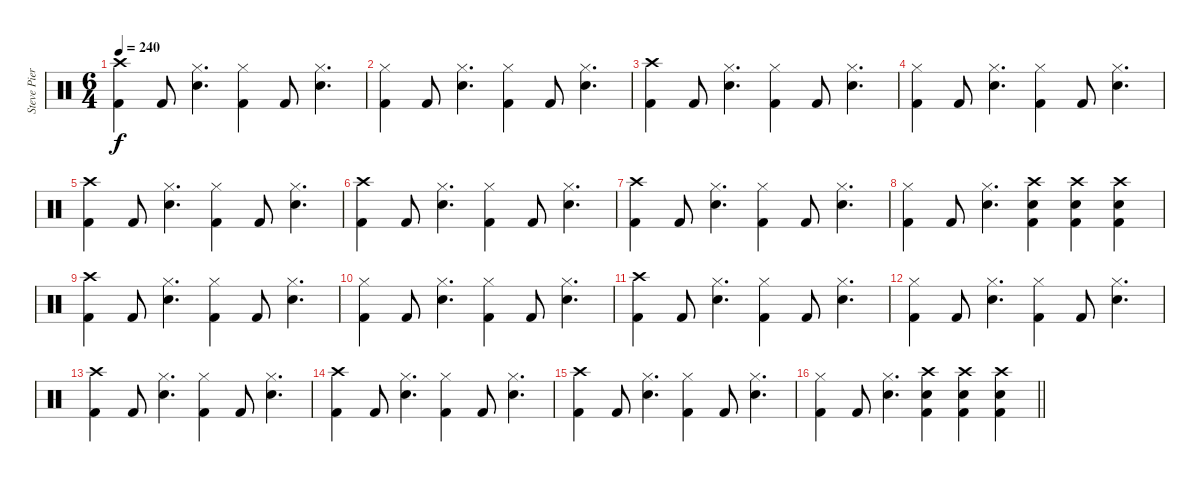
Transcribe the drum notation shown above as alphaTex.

\track ("Steve Pierce" "Steve Pier") {instrument percussion}
\staff {score}
\articulation defaults
\ts (6 4)
\tempo 240
\clef neutral
\ks c
("Crash high (hit)" "Kick (hit) 2").4{dy f} "Kick (hit) 2".8 ("Hi-Hat (closed)" "Snare (hit) 2").4{d} ("Hi-Hat (closed)" "Kick (hit) 2").4 "Kick (hit) 2".8 ("Hi-Hat (closed)" "Snare (hit) 2").4{d} |
("Hi-Hat (closed)" "Kick (hit) 2").4 "Kick (hit) 2".8 ("Hi-Hat (closed)" "Snare (hit) 2").4{d} ("Hi-Hat (closed)" "Kick (hit) 2").4 "Kick (hit) 2".8 ("Hi-Hat (closed)" "Snare (hit) 2").4{d} |
("Crash high (hit)" "Kick (hit) 2").4 "Kick (hit) 2".8 ("Hi-Hat (closed)" "Snare (hit) 2").4{d} ("Hi-Hat (closed)" "Kick (hit) 2").4 "Kick (hit) 2".8 ("Hi-Hat (closed)" "Snare (hit) 2").4{d} |
("Hi-Hat (closed)" "Kick (hit) 2").4 "Kick (hit) 2".8 ("Hi-Hat (closed)" "Snare (hit) 2").4{d} ("Hi-Hat (closed)" "Kick (hit) 2").4 "Kick (hit) 2".8 ("Hi-Hat (closed)" "Snare (hit) 2").4{d} |
("Crash high (hit)" "Kick (hit) 2").4 "Kick (hit) 2".8 ("Hi-Hat (closed)" "Snare (hit) 2").4{d} ("Hi-Hat (closed)" "Kick (hit) 2").4 "Kick (hit) 2".8 ("Hi-Hat (closed)" "Snare (hit) 2").4{d} |
("Crash high (hit)" "Kick (hit) 2").4 "Kick (hit) 2".8 ("Hi-Hat (closed)" "Snare (hit) 2").4{d} ("Hi-Hat (closed)" "Kick (hit) 2").4 "Kick (hit) 2".8 ("Hi-Hat (closed)" "Snare (hit) 2").4{d} |
("Crash high (hit)" "Kick (hit) 2").4 "Kick (hit) 2".8 ("Hi-Hat (closed)" "Snare (hit) 2").4{d} ("Hi-Hat (closed)" "Kick (hit) 2").4 "Kick (hit) 2".8 ("Hi-Hat (closed)" "Snare (hit) 2").4{d} |
("Hi-Hat (closed)" "Kick (hit) 2").4 "Kick (hit) 2".8 ("Hi-Hat (closed)" "Snare (hit) 2").4{d} ("Crash high (hit)" "Snare (hit) 2" "Kick (hit) 2").4 ("Crash high (hit)" "Snare (hit) 2" "Kick (hit) 2").4 ("Crash high (hit)" "Snare (hit) 2" "Kick (hit) 2").4 |
("Crash high (hit)" "Kick (hit) 2").4 "Kick (hit) 2".8 ("Hi-Hat (closed)" "Snare (hit) 2").4{d} ("Hi-Hat (closed)" "Kick (hit) 2").4 "Kick (hit) 2".8 ("Hi-Hat (closed)" "Snare (hit) 2").4{d} |
("Hi-Hat (closed)" "Kick (hit) 2").4 "Kick (hit) 2".8 ("Hi-Hat (closed)" "Snare (hit) 2").4{d} ("Hi-Hat (closed)" "Kick (hit) 2").4 "Kick (hit) 2".8 ("Hi-Hat (closed)" "Snare (hit) 2").4{d} |
("Crash high (hit)" "Kick (hit) 2").4 "Kick (hit) 2".8 ("Hi-Hat (closed)" "Snare (hit) 2").4{d} ("Hi-Hat (closed)" "Kick (hit) 2").4 "Kick (hit) 2".8 ("Hi-Hat (closed)" "Snare (hit) 2").4{d} |
("Hi-Hat (closed)" "Kick (hit) 2").4 "Kick (hit) 2".8 ("Hi-Hat (closed)" "Snare (hit) 2").4{d} ("Hi-Hat (closed)" "Kick (hit) 2").4 "Kick (hit) 2".8 ("Hi-Hat (closed)" "Snare (hit) 2").4{d} |
("Crash high (hit)" "Kick (hit) 2").4 "Kick (hit) 2".8 ("Hi-Hat (closed)" "Snare (hit) 2").4{d} ("Hi-Hat (closed)" "Kick (hit) 2").4 "Kick (hit) 2".8 ("Hi-Hat (closed)" "Snare (hit) 2").4{d} |
("Crash high (hit)" "Kick (hit) 2").4 "Kick (hit) 2".8 ("Hi-Hat (closed)" "Snare (hit) 2").4{d} ("Hi-Hat (closed)" "Kick (hit) 2").4 "Kick (hit) 2".8 ("Hi-Hat (closed)" "Snare (hit) 2").4{d} |
("Crash high (hit)" "Kick (hit) 2").4 "Kick (hit) 2".8 ("Hi-Hat (closed)" "Snare (hit) 2").4{d} ("Hi-Hat (closed)" "Kick (hit) 2").4 "Kick (hit) 2".8 ("Hi-Hat (closed)" "Snare (hit) 2").4{d} |
\barLineRight lightlight
("Hi-Hat (closed)" "Kick (hit) 2").4 "Kick (hit) 2".8 ("Hi-Hat (closed)" "Snare (hit) 2").4{d} ("Crash high (hit)" "Snare (hit) 2" "Kick (hit) 2").4 ("Crash high (hit)" "Snare (hit) 2" "Kick (hit) 2").4 ("Crash high (hit)" "Snare (hit) 2" "Kick (hit) 2").4
